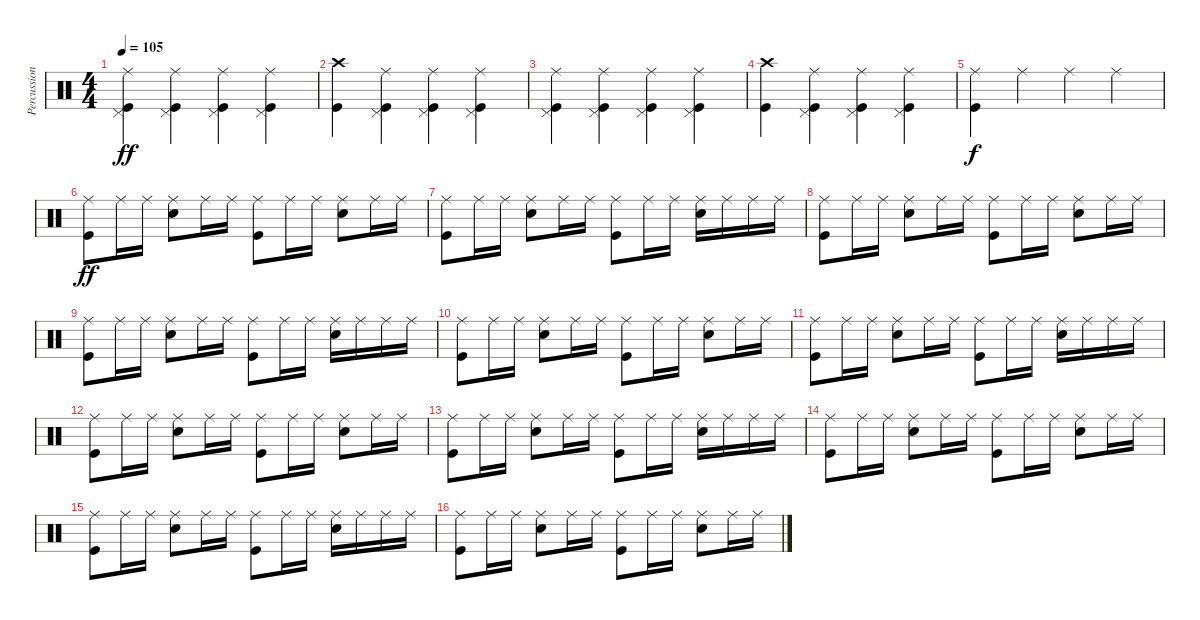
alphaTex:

\track ("Percussion" "Percussion") {instrument percussion}
\staff {score}
\articulation defaults
\ts (4 4)
\tempo 105
\clef neutral
\ks c
("Kick (hit)" "Pedal Hi-Hat (hit)" "Ride (middle)").4{dy ff} ("Kick (hit)" "Pedal Hi-Hat (hit)" "Ride (middle)").4 ("Kick (hit)" "Pedal Hi-Hat (hit)" "Ride (middle)").4 ("Kick (hit)" "Pedal Hi-Hat (hit)" "Ride (middle)").4 |
("Kick (hit)" "Crash high (hit)").4 ("Kick (hit)" "Pedal Hi-Hat (hit)" "Ride (middle)").4 ("Kick (hit)" "Pedal Hi-Hat (hit)" "Ride (middle)").4 ("Kick (hit)" "Pedal Hi-Hat (hit)" "Ride (middle)").4 |
("Kick (hit)" "Pedal Hi-Hat (hit)" "Ride (middle)").4 ("Kick (hit)" "Pedal Hi-Hat (hit)" "Ride (middle)").4 ("Kick (hit)" "Pedal Hi-Hat (hit)" "Ride (middle)").4 ("Kick (hit)" "Pedal Hi-Hat (hit)" "Ride (middle)").4 |
("Kick (hit)" "Crash high (hit)").4 ("Kick (hit)" "Pedal Hi-Hat (hit)" "Ride (middle)").4 ("Kick (hit)" "Pedal Hi-Hat (hit)" "Ride (middle)").4 ("Kick (hit)" "Pedal Hi-Hat (hit)" "Ride (middle)").4 |
("Kick (hit)" "Ride (middle)").4{dy f} "Ride (middle)".4 "Ride (middle)".4 "Ride (middle)".4 |
("Kick (hit)" "Ride (middle)").8{dy ff} "Ride (middle)".16 "Ride (middle)".16 ("Snare (hit) 2" "Ride (middle)").8 "Ride (middle)".16 "Ride (middle)".16 ("Kick (hit)" "Ride (middle)").8 "Ride (middle)".16 "Ride (middle)".16 ("Snare (hit) 2" "Ride (middle)").8 "Ride (middle)".16 "Ride (middle)".16 |
("Kick (hit)" "Ride (middle)").8 "Ride (middle)".16 "Ride (middle)".16 ("Snare (hit) 2" "Ride (middle)").8 "Ride (middle)".16 "Ride (middle)".16 ("Kick (hit)" "Ride (middle)").8 "Ride (middle)".16 "Ride (middle)".16 ("Snare (hit) 2" "Ride (middle)").16 "Ride (middle)".16 "Ride (middle)".16 "Ride (middle)".16 |
("Kick (hit)" "Ride (middle)").8 "Ride (middle)".16 "Ride (middle)".16 ("Snare (hit) 2" "Ride (middle)").8 "Ride (middle)".16 "Ride (middle)".16 ("Kick (hit)" "Ride (middle)").8 "Ride (middle)".16 "Ride (middle)".16 ("Snare (hit) 2" "Ride (middle)").8 "Ride (middle)".16 "Ride (middle)".16 |
("Kick (hit)" "Ride (middle)").8 "Ride (middle)".16 "Ride (middle)".16 ("Snare (hit) 2" "Ride (middle)").8 "Ride (middle)".16 "Ride (middle)".16 ("Kick (hit)" "Ride (middle)").8 "Ride (middle)".16 "Ride (middle)".16 ("Snare (hit) 2" "Ride (middle)").16 "Ride (middle)".16 "Ride (middle)".16 "Ride (middle)".16 |
("Kick (hit)" "Ride (middle)").8 "Ride (middle)".16 "Ride (middle)".16 ("Snare (hit) 2" "Ride (middle)").8 "Ride (middle)".16 "Ride (middle)".16 ("Kick (hit)" "Ride (middle)").8 "Ride (middle)".16 "Ride (middle)".16 ("Snare (hit) 2" "Ride (middle)").8 "Ride (middle)".16 "Ride (middle)".16 |
("Kick (hit)" "Ride (middle)").8 "Ride (middle)".16 "Ride (middle)".16 ("Snare (hit) 2" "Ride (middle)").8 "Ride (middle)".16 "Ride (middle)".16 ("Kick (hit)" "Ride (middle)").8 "Ride (middle)".16 "Ride (middle)".16 ("Snare (hit) 2" "Ride (middle)").16 "Ride (middle)".16 "Ride (middle)".16 "Ride (middle)".16 |
("Kick (hit)" "Ride (middle)").8 "Ride (middle)".16 "Ride (middle)".16 ("Snare (hit) 2" "Ride (middle)").8 "Ride (middle)".16 "Ride (middle)".16 ("Kick (hit)" "Ride (middle)").8 "Ride (middle)".16 "Ride (middle)".16 ("Snare (hit) 2" "Ride (middle)").8 "Ride (middle)".16 "Ride (middle)".16 |
("Kick (hit)" "Ride (middle)").8 "Ride (middle)".16 "Ride (middle)".16 ("Snare (hit) 2" "Ride (middle)").8 "Ride (middle)".16 "Ride (middle)".16 ("Kick (hit)" "Ride (middle)").8 "Ride (middle)".16 "Ride (middle)".16 ("Snare (hit) 2" "Ride (middle)").16 "Ride (middle)".16 "Ride (middle)".16 "Ride (middle)".16 |
("Kick (hit)" "Ride (middle)").8 "Ride (middle)".16 "Ride (middle)".16 ("Snare (hit) 2" "Ride (middle)").8 "Ride (middle)".16 "Ride (middle)".16 ("Kick (hit)" "Ride (middle)").8 "Ride (middle)".16 "Ride (middle)".16 ("Snare (hit) 2" "Ride (middle)").8 "Ride (middle)".16 "Ride (middle)".16 |
("Kick (hit)" "Ride (middle)").8 "Ride (middle)".16 "Ride (middle)".16 ("Snare (hit) 2" "Ride (middle)").8 "Ride (middle)".16 "Ride (middle)".16 ("Kick (hit)" "Ride (middle)").8 "Ride (middle)".16 "Ride (middle)".16 ("Snare (hit) 2" "Ride (middle)").16 "Ride (middle)".16 "Ride (middle)".16 "Ride (middle)".16 |
("Kick (hit)" "Ride (middle)").8 "Ride (middle)".16 "Ride (middle)".16 ("Snare (hit) 2" "Ride (middle)").8 "Ride (middle)".16 "Ride (middle)".16 ("Kick (hit)" "Ride (middle)").8 "Ride (middle)".16 "Ride (middle)".16 ("Snare (hit) 2" "Ride (middle)").8 "Ride (middle)".16 "Ride (middle)".16
